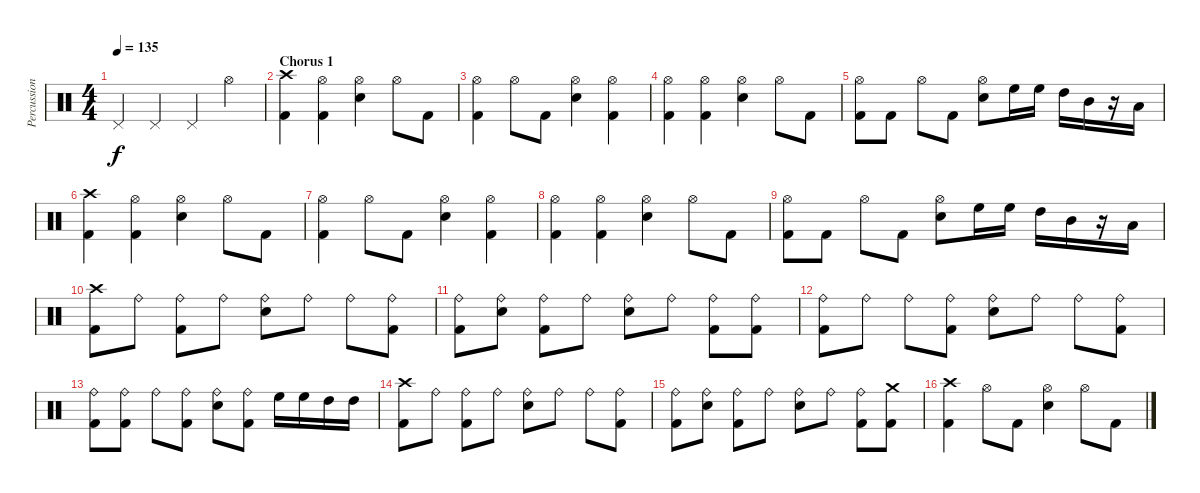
\track ("Percussion" "Percussion") {instrument percussion}
\staff {score}
\articulation defaults
\ts (4 4)
\tempo 135
\clef neutral
\ks c "Pedal Hi-Hat (hit)".4{dy f} "Pedal Hi-Hat (hit)".4 "Pedal Hi-Hat (hit)".4 "Hi-Hat (open)".4
|
\section ("" "Chorus 1")
("Kick (hit) 2" "Crash high (hit)").4 ("Kick (hit) 2" "Hi-Hat (open)").4 ("Electric Snare (hit)" "Hi-Hat (open)").4 "Hi-Hat (open)".8 "Kick (hit) 2".8 |
("Kick (hit) 2" "Hi-Hat (open)").4 "Hi-Hat (open)".8 "Kick (hit) 2".8 ("Electric Snare (hit)" "Hi-Hat (open)").4 ("Kick (hit) 2" "Hi-Hat (open)").4 |
("Kick (hit) 2" "Hi-Hat (open)").4 ("Kick (hit) 2" "Hi-Hat (open)").4 ("Electric Snare (hit)" "Hi-Hat (open)").4 "Hi-Hat (open)".8 "Kick (hit) 2".8 |
("Kick (hit) 2" "Hi-Hat (open)").8 "Kick (hit) 2".8 "Hi-Hat (open)".8 "Kick (hit) 2".8 ("Electric Snare (hit)" "Hi-Hat (open)").8 "High Floor Tom (hit)".16 "High Floor Tom (hit)".16 "High Tom (hit)".16 "Mid Tom (hit)".16 r.16 "Low Tom (hit)".16 |
("Kick (hit) 2" "Crash high (hit)").4 ("Kick (hit) 2" "Hi-Hat (open)").4 ("Electric Snare (hit)" "Hi-Hat (open)").4 "Hi-Hat (open)".8 "Kick (hit) 2".8 |
("Kick (hit) 2" "Hi-Hat (open)").4 "Hi-Hat (open)".8 "Kick (hit) 2".8 ("Electric Snare (hit)" "Hi-Hat (open)").4 ("Kick (hit) 2" "Hi-Hat (open)").4 |
("Kick (hit) 2" "Hi-Hat (open)").4 ("Kick (hit) 2" "Hi-Hat (open)").4 ("Electric Snare (hit)" "Hi-Hat (open)").4 "Hi-Hat (open)".8 "Kick (hit) 2".8 |
("Kick (hit) 2" "Hi-Hat (open)").8 "Kick (hit) 2".8 "Hi-Hat (open)".8 "Kick (hit) 2".8 ("Electric Snare (hit)" "Hi-Hat (open)").8 "High Floor Tom (hit)".16 "High Floor Tom (hit)".16 "High Tom (hit)".16 "Mid Tom (hit)".16 r.16 "Low Tom (hit)".16 |
("Kick (hit) 2" "Crash high (hit)").8 "Ride (bell)".8 ("Kick (hit) 2" "Ride (bell)").8 "Ride (bell)".8 ("Electric Snare (hit)" "Ride (bell)").8 "Ride (bell)".8 "Ride (bell)".8 ("Kick (hit) 2" "Ride (bell)").8 |
("Kick (hit) 2" "Ride (bell)").8 ("Electric Snare (hit)" "Ride (bell)").8 ("Kick (hit) 2" "Ride (bell)").8 "Ride (bell)".8 ("Electric Snare (hit)" "Ride (bell)").8 "Ride (bell)".8 ("Kick (hit) 2" "Ride (bell)").8 ("Kick (hit) 2" "Ride (bell)").8 |
("Kick (hit) 2" "Ride (bell)").8 "Ride (bell)".8 "Ride (bell)".8 ("Kick (hit) 2" "Ride (bell)").8 ("Electric Snare (hit)" "Ride (bell)").8 "Ride (bell)".8 "Ride (bell)".8 ("Kick (hit) 2" "Ride (bell)").8 |
("Kick (hit) 2" "Ride (bell)").8 ("Kick (hit) 2" "Ride (bell)").8 "Ride (bell)".8 ("Kick (hit) 2" "Ride (bell)").8 ("Electric Snare (hit)" "Ride (bell)").8 ("Kick (hit) 2" "Ride (bell)").8 "High Floor Tom (hit)".16 "High Floor Tom (hit)".16 "High Tom (hit)".16 "High Tom (hit)".16 |
("Kick (hit) 2" "Crash high (hit)").8 "Ride (bell)".8 ("Kick (hit) 2" "Ride (bell)").8 "Ride (bell)".8 ("Electric Snare (hit)" "Ride (bell)").8 "Ride (bell)".8 "Ride (bell)".8 ("Kick (hit) 2" "Ride (bell)").8 |
("Kick (hit) 2" "Ride (bell)").8 ("Electric Snare (hit)" "Ride (bell)").8 ("Kick (hit) 2" "Ride (bell)").8 "Ride (bell)".8 ("Electric Snare (hit)" "Ride (bell)").8 "Ride (bell)".8 ("Kick (hit) 2" "Ride (bell)").8 ("Kick (hit) 2" "Crash medium (hit)").8 |
("Kick (hit) 2" "Crash high (hit)").4 "Hi-Hat (open)".8 "Kick (hit) 2".8 ("Electric Snare (hit)" "Hi-Hat (open)").4 "Hi-Hat (open)".8 "Kick (hit) 2".8
